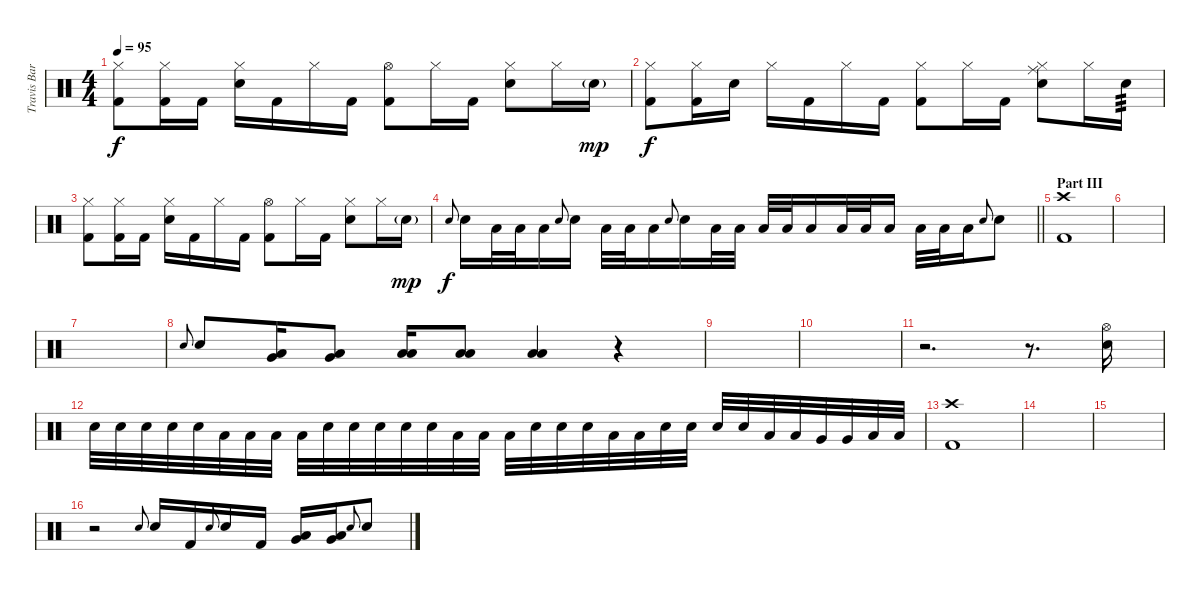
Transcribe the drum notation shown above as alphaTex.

\track ("Travis Barker - Drums" "Travis Bar") {instrument percussion}
\staff {score}
\articulation defaults
\ts (4 4)
\tempo 95
\clef neutral
\ks c
("Hi-Hat (closed)" "Kick (hit) 2").8{dy f} ("Hi-Hat (closed)" "Kick (hit) 2").16 "Kick (hit) 2".16 ("Hi-Hat (closed)" "Electric Snare (hit)").16 "Kick (hit) 2".16 "Hi-Hat (closed)".16 "Kick (hit) 2".16 ("Hi-Hat (open)" "Kick (hit) 2").8 "Hi-Hat (closed)".16 "Kick (hit) 2".16 ("Hi-Hat (closed)" "Electric Snare (hit)").8 "Hi-Hat (closed)".16 "Electric Snare (hit)"{g}.16{dy mp} |
("Hi-Hat (closed)" "Kick (hit) 2").8{dy f} ("Hi-Hat (closed)" "Kick (hit) 2").16 "Electric Snare (hit)".16 "Hi-Hat (closed)".16 "Kick (hit) 2".16 "Hi-Hat (closed)".16 "Kick (hit) 2".16 ("Hi-Hat (closed)" "Kick (hit) 2").8 "Hi-Hat (closed)".16 "Kick (hit) 2".16 ("Hi-Hat (closed)" "Ride (middle)" "Electric Snare (hit)").8 "Hi-Hat (closed)".16 "Electric Snare (hit)".16{tp 3} |
("Hi-Hat (closed)" "Kick (hit) 2").8 ("Hi-Hat (closed)" "Kick (hit) 2").16 "Kick (hit) 2".16 ("Hi-Hat (closed)" "Electric Snare (hit)").16 "Kick (hit) 2".16 "Hi-Hat (closed)".16 "Kick (hit) 2".16 ("Hi-Hat (open)" "Kick (hit) 2").8 "Hi-Hat (closed)".16 "Kick (hit) 2".16 ("Hi-Hat (closed)" "Electric Snare (hit)").8 "Hi-Hat (closed)".16 "Electric Snare (hit)"{g}.16{dy mp} |
\barLineRight lightlight "Electric Snare (hit)".8{gr onbeat dy f} "Electric Snare (hit)".16 "Low Tom (hit)".32 "Low Tom (hit)".32 "Low Tom (hit)".16 "Electric Snare (hit)".8{gr onbeat} "Electric Snare (hit)".16 "Low Tom (hit)".32 "Low Tom (hit)".32 "Low Tom (hit)".16 "Electric Snare (hit)".8{gr onbeat} "Electric Snare (hit)".16 "Low Tom (hit)".32 "Low Tom (hit)".32 "Low Tom (hit)".32 "Low Tom (hit)".32 "Low Tom (hit)".16 "Low Tom (hit)".32 "Low Tom (hit)".32 "Low Tom (hit)".16 "Low Tom (hit)".32 "Low Tom (hit)".32 "Low Tom (hit)".16 "Electric Snare (hit)".8{gr onbeat} "Electric Snare (hit)".8
|
\section ("" "Part III")
("Crash high (hit)" "Kick (hit) 2").1 |
|
|
"Electric Snare (hit)".8{gr onbeat} "Electric Snare (hit)".8 ("Low Tom (hit)" "Very Low Tom (hit)").16 ("Low Tom (hit)" "Very Low Tom (hit)").8 ("Low Tom (hit)" "Low Floor Tom (hit)").16 ("Low Tom (hit)" "Low Floor Tom (hit)").8 ("Low Tom (hit)" "Low Floor Tom (hit)").4 r.4 |
|
|
r.2{d} r.8{d} ("Hi-Hat (open)" "Electric Snare (hit)").16 |
"Electric Snare (hit)".32 "Electric Snare (hit)".32 "Electric Snare (hit)".32 "Electric Snare (hit)".32 "Electric Snare (hit)".32 "Low Tom (hit)".32 "Low Tom (hit)".32 "Low Tom (hit)".32 "Low Tom (hit)".32 "Electric Snare (hit)".32 "Electric Snare (hit)".32 "Electric Snare (hit)".32 "Electric Snare (hit)".32 "Electric Snare (hit)".32 "Low Tom (hit)".32 "Low Tom (hit)".32 "Low Tom (hit)".32 "Electric Snare (hit)".32 "Electric Snare (hit)".32 "Electric Snare (hit)".32 "Low Tom (hit)".32 "Low Tom (hit)".32 "Electric Snare (hit)".32 "Electric Snare (hit)".32 "Electric Snare (hit)".32 "Electric Snare (hit)".32 "Low Tom (hit)".32 "Low Tom (hit)".32 "Very Low Tom (hit)".32 "Very Low Tom (hit)".32 "Low Floor Tom (hit)".32 "Low Floor Tom (hit)".32 |
("Crash high (hit)" "Kick (hit) 2").1 |
|
|
r.2 "Electric Snare (hit)".8{gr onbeat} "Electric Snare (hit)".16 "Kick (hit) 2".16 "Electric Snare (hit)".8{gr onbeat} "Electric Snare (hit)".16 "Kick (hit) 2".16 ("Low Tom (hit)" "Very Low Tom (hit)").16 ("Low Tom (hit)" "Very Low Tom (hit)").16 "Electric Snare (hit)".8{gr onbeat} "Electric Snare (hit)".8
